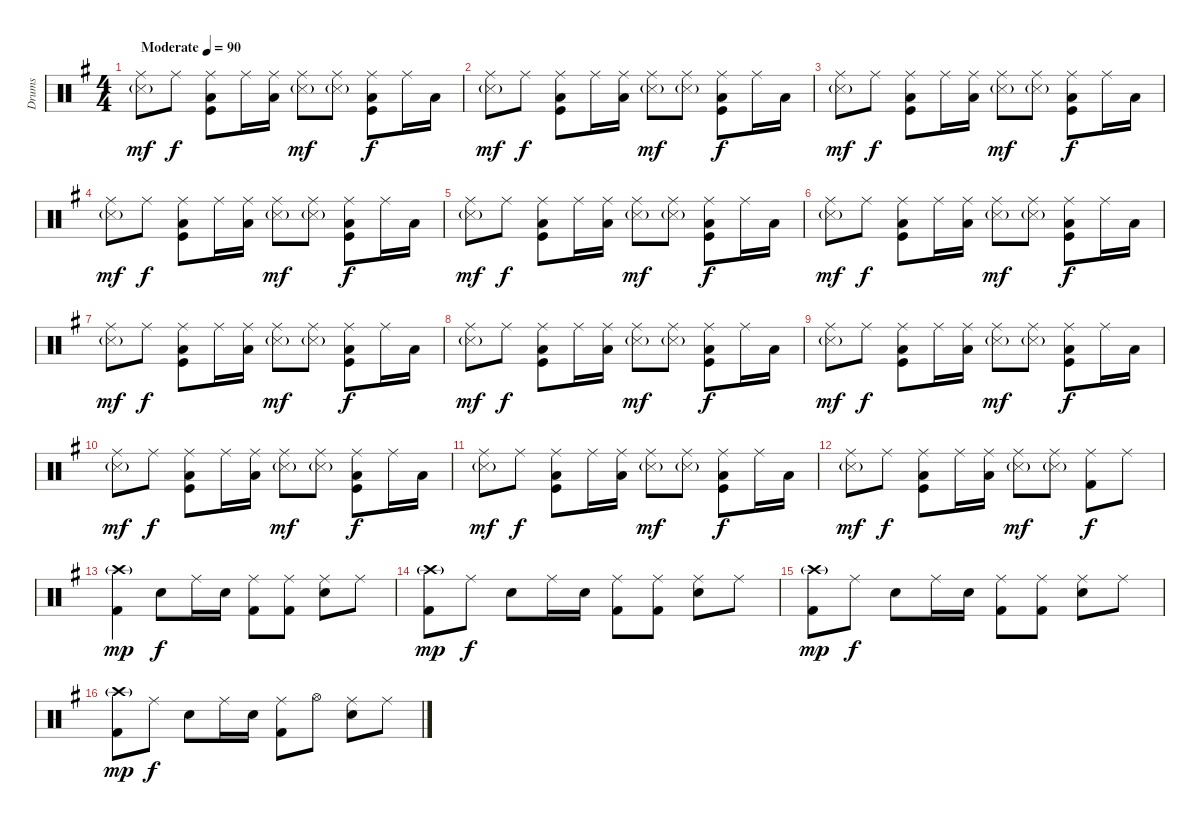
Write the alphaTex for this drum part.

\track ("Drums" "Drums") {instrument percussion}
\staff {score}
\articulation defaults
\ts (4 4)
\tempo (90 "Moderate")
\clef neutral
\ks g
("Ride (middle)" "Metronome (hit)"{g}).8{dy mf} "Ride (middle)".8{dy f} ("Ride (middle)" "Kick (hit)" "Low Floor Tom (hit)").8 "Ride (middle)".16 ("Ride (middle)" "Low Floor Tom (hit)").16 ("Ride (middle)" "Metronome (hit)"{g}).8{dy mf} ("Ride (middle)" "Metronome (hit)"{g}).8 ("Ride (middle)" "Kick (hit)" "Low Floor Tom (hit)").8{dy f} "Ride (middle)".16 "Low Floor Tom (hit)".16 |
("Ride (middle)" "Metronome (hit)"{g}).8{dy mf} "Ride (middle)".8{dy f} ("Ride (middle)" "Kick (hit)" "Low Floor Tom (hit)").8 "Ride (middle)".16 ("Ride (middle)" "Low Floor Tom (hit)").16 ("Ride (middle)" "Metronome (hit)"{g}).8{dy mf} ("Ride (middle)" "Metronome (hit)"{g}).8 ("Ride (middle)" "Kick (hit)" "Low Floor Tom (hit)").8{dy f} "Ride (middle)".16 "Low Floor Tom (hit)".16 |
("Ride (middle)" "Metronome (hit)"{g}).8{dy mf} "Ride (middle)".8{dy f} ("Ride (middle)" "Kick (hit)" "Low Floor Tom (hit)").8 "Ride (middle)".16 ("Ride (middle)" "Low Floor Tom (hit)").16 ("Ride (middle)" "Metronome (hit)"{g}).8{dy mf} ("Ride (middle)" "Metronome (hit)"{g}).8 ("Ride (middle)" "Kick (hit)" "Low Floor Tom (hit)").8{dy f} "Ride (middle)".16 "Low Floor Tom (hit)".16 |
("Ride (middle)" "Metronome (hit)"{g}).8{dy mf} "Ride (middle)".8{dy f} ("Ride (middle)" "Kick (hit)" "Low Floor Tom (hit)").8 "Ride (middle)".16 ("Ride (middle)" "Low Floor Tom (hit)").16 ("Ride (middle)" "Metronome (hit)"{g}).8{dy mf} ("Ride (middle)" "Metronome (hit)"{g}).8 ("Ride (middle)" "Kick (hit)" "Low Floor Tom (hit)").8{dy f} "Ride (middle)".16 "Low Floor Tom (hit)".16 |
("Ride (middle)" "Metronome (hit)"{g}).8{dy mf} "Ride (middle)".8{dy f} ("Ride (middle)" "Kick (hit)" "Low Floor Tom (hit)").8 "Ride (middle)".16 ("Ride (middle)" "Low Floor Tom (hit)").16 ("Ride (middle)" "Metronome (hit)"{g}).8{dy mf} ("Ride (middle)" "Metronome (hit)"{g}).8 ("Ride (middle)" "Kick (hit)" "Low Floor Tom (hit)").8{dy f} "Ride (middle)".16 "Low Floor Tom (hit)".16 |
("Ride (middle)" "Metronome (hit)"{g}).8{dy mf} "Ride (middle)".8{dy f} ("Ride (middle)" "Kick (hit)" "Low Floor Tom (hit)").8 "Ride (middle)".16 ("Ride (middle)" "Low Floor Tom (hit)").16 ("Ride (middle)" "Metronome (hit)"{g}).8{dy mf} ("Ride (middle)" "Metronome (hit)"{g}).8 ("Ride (middle)" "Kick (hit)" "Low Floor Tom (hit)").8{dy f} "Ride (middle)".16 "Low Floor Tom (hit)".16 |
("Ride (middle)" "Metronome (hit)"{g}).8{dy mf} "Ride (middle)".8{dy f} ("Ride (middle)" "Kick (hit)" "Low Floor Tom (hit)").8 "Ride (middle)".16 ("Ride (middle)" "Low Floor Tom (hit)").16 ("Ride (middle)" "Metronome (hit)"{g}).8{dy mf} ("Ride (middle)" "Metronome (hit)"{g}).8 ("Ride (middle)" "Kick (hit)" "Low Floor Tom (hit)").8{dy f} "Ride (middle)".16 "Low Floor Tom (hit)".16 |
("Ride (middle)" "Metronome (hit)"{g}).8{dy mf} "Ride (middle)".8{dy f} ("Ride (middle)" "Kick (hit)" "Low Floor Tom (hit)").8 "Ride (middle)".16 ("Ride (middle)" "Low Floor Tom (hit)").16 ("Ride (middle)" "Metronome (hit)"{g}).8{dy mf} ("Ride (middle)" "Metronome (hit)"{g}).8 ("Ride (middle)" "Kick (hit)" "Low Floor Tom (hit)").8{dy f} "Ride (middle)".16 "Low Floor Tom (hit)".16 |
("Ride (middle)" "Metronome (hit)"{g}).8{dy mf} "Ride (middle)".8{dy f} ("Ride (middle)" "Kick (hit)" "Low Floor Tom (hit)").8 "Ride (middle)".16 ("Ride (middle)" "Low Floor Tom (hit)").16 ("Ride (middle)" "Metronome (hit)"{g}).8{dy mf} ("Ride (middle)" "Metronome (hit)"{g}).8 ("Ride (middle)" "Kick (hit)" "Low Floor Tom (hit)").8{dy f} "Ride (middle)".16 "Low Floor Tom (hit)".16 |
("Ride (middle)" "Metronome (hit)"{g}).8{dy mf} "Ride (middle)".8{dy f} ("Ride (middle)" "Kick (hit)" "Low Floor Tom (hit)").8 "Ride (middle)".16 ("Ride (middle)" "Low Floor Tom (hit)").16 ("Ride (middle)" "Metronome (hit)"{g}).8{dy mf} ("Ride (middle)" "Metronome (hit)"{g}).8 ("Ride (middle)" "Kick (hit)" "Low Floor Tom (hit)").8{dy f} "Ride (middle)".16 "Low Floor Tom (hit)".16 |
("Ride (middle)" "Metronome (hit)"{g}).8{dy mf} "Ride (middle)".8{dy f} ("Ride (middle)" "Kick (hit)" "Low Floor Tom (hit)").8 "Ride (middle)".16 ("Ride (middle)" "Low Floor Tom (hit)").16 ("Ride (middle)" "Metronome (hit)"{g}).8{dy mf} ("Ride (middle)" "Metronome (hit)"{g}).8 ("Ride (middle)" "Kick (hit)" "Low Floor Tom (hit)").8{dy f} "Ride (middle)".16 "Low Floor Tom (hit)".16 |
("Ride (middle)" "Metronome (hit)"{g}).8{dy mf} "Ride (middle)".8{dy f} ("Ride (middle)" "Kick (hit)" "Low Floor Tom (hit)").8 "Ride (middle)".16 ("Ride (middle)" "Low Floor Tom (hit)").16 ("Ride (middle)" "Metronome (hit)"{g}).8{dy mf} ("Ride (middle)" "Metronome (hit)"{g}).8 ("Ride (middle)" "Kick (hit) 2").8{dy f} "Ride (middle)".8 |
("Crash high (hit)"{g} "Kick (hit) 2").4{dy mp} "Snare (hit) 2".8{dy f} "Ride (middle)".16 "Snare (hit) 2".16 ("Ride (middle)" "Kick (hit) 2").8 ("Ride (middle)" "Kick (hit) 2").8 ("Ride (middle)" "Snare (hit) 2").8 "Ride (middle)".8 |
("Crash high (hit)"{g} "Kick (hit) 2").8{dy mp} "Ride (middle)".8{dy f} "Snare (hit) 2".8 "Ride (middle)".16 "Snare (hit) 2".16 ("Ride (middle)" "Kick (hit) 2").8 ("Ride (middle)" "Kick (hit) 2").8 ("Ride (middle)" "Snare (hit) 2").8 "Ride (middle)".8 |
("Crash high (hit)"{g} "Kick (hit) 2").8{dy mp} "Ride (middle)".8{dy f} "Snare (hit) 2".8 "Ride (middle)".16 "Snare (hit) 2".16 ("Ride (middle)" "Kick (hit) 2").8 ("Ride (middle)" "Kick (hit) 2").8 ("Ride (middle)" "Snare (hit) 2").8 "Ride (middle)".8 |
("Crash high (hit)"{g} "Kick (hit) 2").8{dy mp} "Ride (middle)".8{dy f} "Snare (hit) 2".8 "Ride (middle)".16 "Snare (hit) 2".16 ("Ride (middle)" "Kick (hit) 2").8 "Hi-Hat (open)".8 ("Ride (middle)" "Snare (hit) 2").8 "Ride (middle)".8
